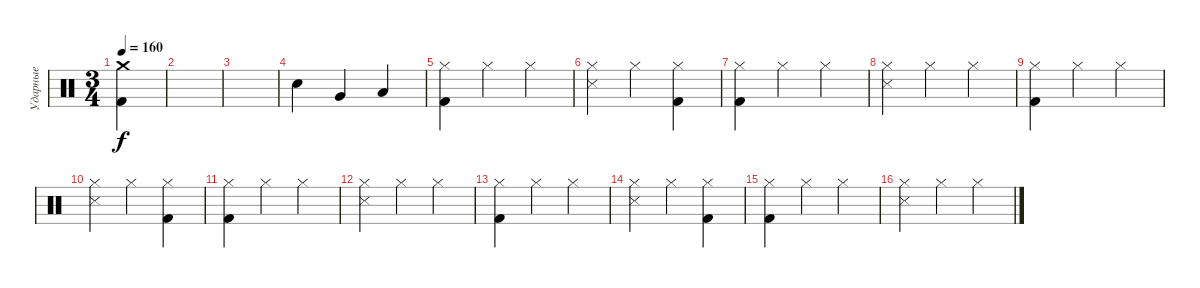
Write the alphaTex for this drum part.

\track ("Ударные" "Ударные") {instrument percussion}
\staff {score}
\articulation defaults
\ts (3 4)
\tempo 160
\clef neutral
\ks c
("Crash medium (hit)" "Kick (hit) 2").4{dy f} |
|
|
"Snare (hit) 2".4 "Very Low Tom (hit)".4 "Low Floor Tom (hit)".4 |
("Hi-Hat (closed)" "Kick (hit) 2").4 "Hi-Hat (closed)".4 "Hi-Hat (closed)".4 |
("Hi-Hat (closed)" "Snare (side stick) 3").4 "Hi-Hat (closed)".4 ("Hi-Hat (closed)" "Kick (hit) 2").4 |
("Hi-Hat (closed)" "Kick (hit) 2").4 "Hi-Hat (closed)".4 "Hi-Hat (closed)".4 |
("Hi-Hat (closed)" "Snare (side stick) 3").4 "Hi-Hat (closed)".4 "Hi-Hat (closed)".4 |
("Hi-Hat (closed)" "Kick (hit) 2").4 "Hi-Hat (closed)".4 "Hi-Hat (closed)".4 |
("Hi-Hat (closed)" "Snare (side stick) 3").4 "Hi-Hat (closed)".4 ("Hi-Hat (closed)" "Kick (hit) 2").4 |
("Hi-Hat (closed)" "Kick (hit) 2").4 "Hi-Hat (closed)".4 "Hi-Hat (closed)".4 |
("Hi-Hat (closed)" "Snare (side stick) 3").4 "Hi-Hat (closed)".4 "Hi-Hat (closed)".4 |
("Hi-Hat (closed)" "Kick (hit) 2").4 "Hi-Hat (closed)".4 "Hi-Hat (closed)".4 |
("Hi-Hat (closed)" "Snare (side stick) 3").4 "Hi-Hat (closed)".4 ("Hi-Hat (closed)" "Kick (hit) 2").4 |
("Hi-Hat (closed)" "Kick (hit) 2").4 "Hi-Hat (closed)".4 "Hi-Hat (closed)".4 |
("Hi-Hat (closed)" "Snare (side stick) 3").4 "Hi-Hat (closed)".4 "Hi-Hat (closed)".4
